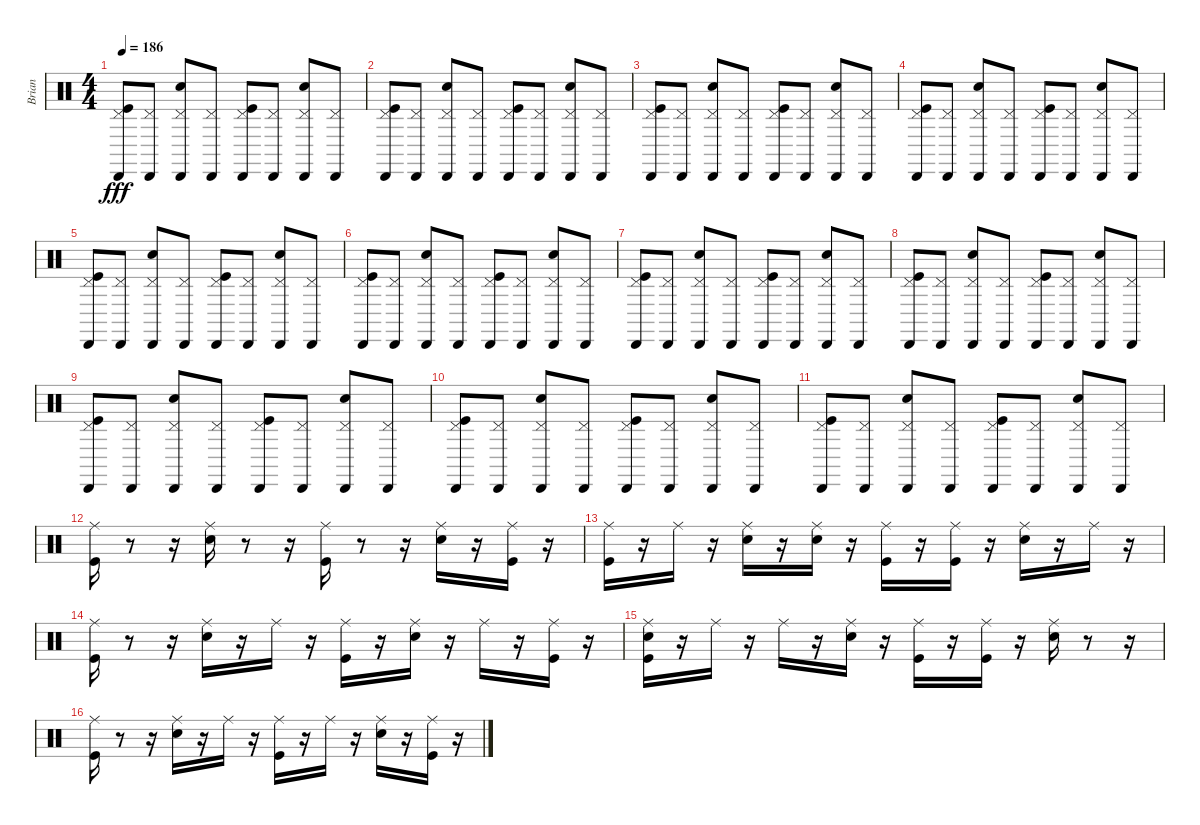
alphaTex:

\track ("Brian" "Brian") {instrument percussion}
\staff {score}
\articulation defaults
\ts (4 4)
\tempo 186
\clef neutral
\ks c
("Cabasa (hit)" "Pedal Hi-Hat (hit)" "Kick (hit)").8{dy fff} ("Cabasa (hit)" "Pedal Hi-Hat (hit)").8 ("Cabasa (hit)" "Pedal Hi-Hat (hit)" "Snare (hit) 2").8 ("Cabasa (hit)" "Pedal Hi-Hat (hit)").8 ("Cabasa (hit)" "Pedal Hi-Hat (hit)" "Kick (hit)").8 ("Cabasa (hit)" "Pedal Hi-Hat (hit)").8 ("Cabasa (hit)" "Pedal Hi-Hat (hit)" "Snare (hit) 2").8 ("Cabasa (hit)" "Pedal Hi-Hat (hit)").8 |
("Cabasa (hit)" "Pedal Hi-Hat (hit)" "Kick (hit)").8 ("Cabasa (hit)" "Pedal Hi-Hat (hit)").8 ("Cabasa (hit)" "Pedal Hi-Hat (hit)" "Snare (hit) 2").8 ("Cabasa (hit)" "Pedal Hi-Hat (hit)").8 ("Cabasa (hit)" "Pedal Hi-Hat (hit)" "Kick (hit)").8 ("Cabasa (hit)" "Pedal Hi-Hat (hit)").8 ("Cabasa (hit)" "Pedal Hi-Hat (hit)" "Snare (hit) 2").8 ("Cabasa (hit)" "Pedal Hi-Hat (hit)").8 |
("Cabasa (hit)" "Pedal Hi-Hat (hit)" "Kick (hit)").8 ("Cabasa (hit)" "Pedal Hi-Hat (hit)").8 ("Cabasa (hit)" "Pedal Hi-Hat (hit)" "Snare (hit) 2").8 ("Cabasa (hit)" "Pedal Hi-Hat (hit)").8 ("Cabasa (hit)" "Pedal Hi-Hat (hit)" "Kick (hit)").8 ("Cabasa (hit)" "Pedal Hi-Hat (hit)").8 ("Cabasa (hit)" "Pedal Hi-Hat (hit)" "Snare (hit) 2").8 ("Cabasa (hit)" "Pedal Hi-Hat (hit)").8 |
("Cabasa (hit)" "Pedal Hi-Hat (hit)" "Kick (hit)").8 ("Cabasa (hit)" "Pedal Hi-Hat (hit)").8 ("Cabasa (hit)" "Pedal Hi-Hat (hit)" "Snare (hit) 2").8 ("Cabasa (hit)" "Pedal Hi-Hat (hit)").8 ("Cabasa (hit)" "Pedal Hi-Hat (hit)" "Kick (hit)").8 ("Cabasa (hit)" "Pedal Hi-Hat (hit)").8 ("Cabasa (hit)" "Pedal Hi-Hat (hit)" "Snare (hit) 2").8 ("Cabasa (hit)" "Pedal Hi-Hat (hit)").8 |
("Cabasa (hit)" "Pedal Hi-Hat (hit)" "Kick (hit)").8 ("Cabasa (hit)" "Pedal Hi-Hat (hit)").8 ("Cabasa (hit)" "Pedal Hi-Hat (hit)" "Snare (hit) 2").8 ("Cabasa (hit)" "Pedal Hi-Hat (hit)").8 ("Cabasa (hit)" "Pedal Hi-Hat (hit)" "Kick (hit)").8 ("Cabasa (hit)" "Pedal Hi-Hat (hit)").8 ("Cabasa (hit)" "Pedal Hi-Hat (hit)" "Snare (hit) 2").8 ("Cabasa (hit)" "Pedal Hi-Hat (hit)").8 |
("Cabasa (hit)" "Pedal Hi-Hat (hit)" "Kick (hit)").8 ("Cabasa (hit)" "Pedal Hi-Hat (hit)").8 ("Cabasa (hit)" "Pedal Hi-Hat (hit)" "Snare (hit) 2").8 ("Cabasa (hit)" "Pedal Hi-Hat (hit)").8 ("Cabasa (hit)" "Pedal Hi-Hat (hit)" "Kick (hit)").8 ("Cabasa (hit)" "Pedal Hi-Hat (hit)").8 ("Cabasa (hit)" "Pedal Hi-Hat (hit)" "Snare (hit) 2").8 ("Cabasa (hit)" "Pedal Hi-Hat (hit)").8 |
("Cabasa (hit)" "Pedal Hi-Hat (hit)" "Kick (hit)").8 ("Cabasa (hit)" "Pedal Hi-Hat (hit)").8 ("Cabasa (hit)" "Pedal Hi-Hat (hit)" "Snare (hit) 2").8 ("Cabasa (hit)" "Pedal Hi-Hat (hit)").8 ("Cabasa (hit)" "Pedal Hi-Hat (hit)" "Kick (hit)").8 ("Cabasa (hit)" "Pedal Hi-Hat (hit)").8 ("Cabasa (hit)" "Pedal Hi-Hat (hit)" "Snare (hit) 2").8 ("Cabasa (hit)" "Pedal Hi-Hat (hit)").8 |
("Cabasa (hit)" "Pedal Hi-Hat (hit)" "Kick (hit)").8 ("Cabasa (hit)" "Pedal Hi-Hat (hit)").8 ("Cabasa (hit)" "Pedal Hi-Hat (hit)" "Snare (hit) 2").8 ("Cabasa (hit)" "Pedal Hi-Hat (hit)").8 ("Cabasa (hit)" "Pedal Hi-Hat (hit)" "Kick (hit)").8 ("Cabasa (hit)" "Pedal Hi-Hat (hit)").8 ("Cabasa (hit)" "Pedal Hi-Hat (hit)" "Snare (hit) 2").8 ("Cabasa (hit)" "Pedal Hi-Hat (hit)").8 |
("Cabasa (hit)" "Pedal Hi-Hat (hit)" "Kick (hit)").8 ("Cabasa (hit)" "Pedal Hi-Hat (hit)").8 ("Cabasa (hit)" "Pedal Hi-Hat (hit)" "Snare (hit) 2").8 ("Cabasa (hit)" "Pedal Hi-Hat (hit)").8 ("Cabasa (hit)" "Pedal Hi-Hat (hit)" "Kick (hit)").8 ("Cabasa (hit)" "Pedal Hi-Hat (hit)").8 ("Cabasa (hit)" "Pedal Hi-Hat (hit)" "Snare (hit) 2").8 ("Cabasa (hit)" "Pedal Hi-Hat (hit)").8 |
("Cabasa (hit)" "Pedal Hi-Hat (hit)" "Kick (hit)").8 ("Cabasa (hit)" "Pedal Hi-Hat (hit)").8 ("Cabasa (hit)" "Pedal Hi-Hat (hit)" "Snare (hit) 2").8 ("Cabasa (hit)" "Pedal Hi-Hat (hit)").8 ("Cabasa (hit)" "Pedal Hi-Hat (hit)" "Kick (hit)").8 ("Cabasa (hit)" "Pedal Hi-Hat (hit)").8 ("Cabasa (hit)" "Pedal Hi-Hat (hit)" "Snare (hit) 2").8 ("Cabasa (hit)" "Pedal Hi-Hat (hit)").8 |
("Cabasa (hit)" "Pedal Hi-Hat (hit)" "Kick (hit)").8 ("Cabasa (hit)" "Pedal Hi-Hat (hit)").8 ("Cabasa (hit)" "Pedal Hi-Hat (hit)" "Snare (hit) 2").8 ("Cabasa (hit)" "Pedal Hi-Hat (hit)").8 ("Cabasa (hit)" "Pedal Hi-Hat (hit)" "Kick (hit)").8 ("Cabasa (hit)" "Pedal Hi-Hat (hit)").8 ("Cabasa (hit)" "Pedal Hi-Hat (hit)" "Snare (hit) 2").8 ("Cabasa (hit)" "Pedal Hi-Hat (hit)").8 |
("Ride (middle)" "Kick (hit)").16 r.8 r.16 ("Ride (middle)" "Snare (hit) 2").16 r.8 r.16 ("Ride (middle)" "Kick (hit)").16 r.8 r.16 ("Ride (middle)" "Snare (hit) 2").16 r.16 ("Ride (middle)" "Kick (hit)").16 r.16 |
("Ride (middle)" "Kick (hit)").16 r.16 "Ride (middle)".16 r.16 ("Ride (middle)" "Snare (hit) 2").16 r.16 ("Ride (middle)" "Snare (hit) 2").16 r.16 ("Ride (middle)" "Kick (hit)").16 r.16 ("Ride (middle)" "Kick (hit)").16 r.16 ("Ride (middle)" "Snare (hit) 2").16 r.16 "Ride (middle)".16 r.16 |
("Ride (middle)" "Kick (hit)").16 r.8 r.16 ("Ride (middle)" "Snare (hit) 2").16 r.16 "Ride (middle)".16 r.16 ("Ride (middle)" "Kick (hit)").16 r.16 ("Ride (middle)" "Snare (hit) 2").16 r.16 "Ride (middle)".16 r.16 ("Ride (middle)" "Kick (hit)").16 r.16 |
("Ride (middle)" "Snare (hit) 2" "Kick (hit)").16 r.16 "Ride (middle)".16 r.16 "Ride (middle)".16 r.16 ("Ride (middle)" "Snare (hit) 2").16 r.16 ("Ride (middle)" "Kick (hit)").16 r.16 ("Ride (middle)" "Kick (hit)").16 r.16 ("Ride (middle)" "Snare (hit) 2").16 r.8 r.16 |
("Ride (middle)" "Kick (hit)").16 r.8 r.16 ("Ride (middle)" "Snare (hit) 2").16 r.16 "Ride (middle)".16 r.16 ("Ride (middle)" "Kick (hit)").16 r.16 "Ride (middle)".16 r.16 ("Ride (middle)" "Snare (hit) 2").16 r.16 ("Ride (middle)" "Kick (hit)").16 r.16
